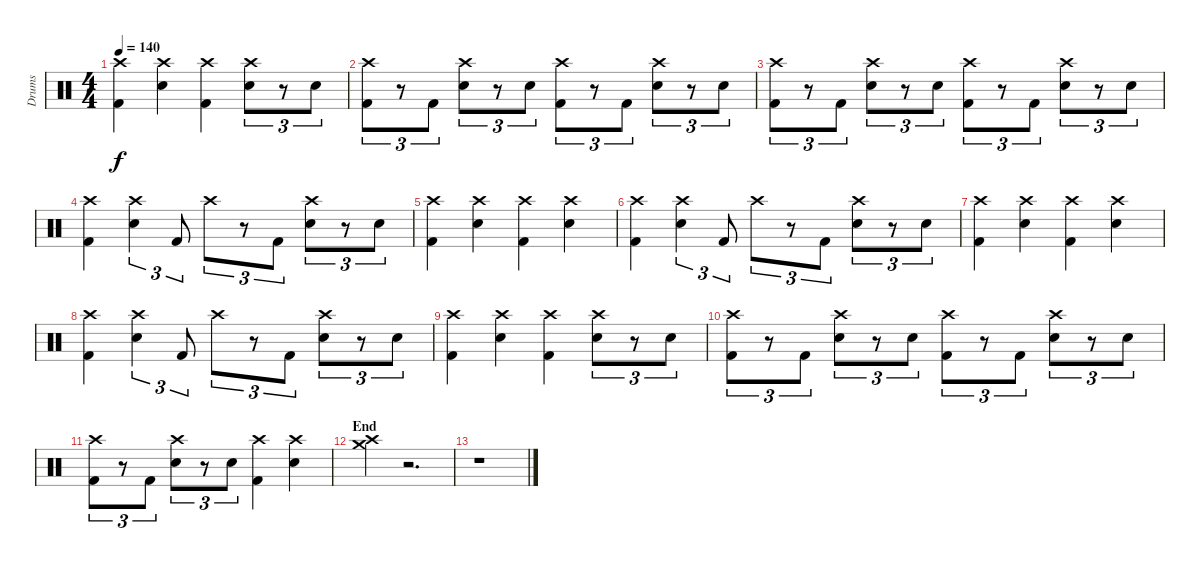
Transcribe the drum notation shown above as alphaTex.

\track ("Drums" "Drums") {instrument percussion}
\staff {score}
\articulation defaults
\ts (4 4)
\tempo 140
\clef neutral
\ks c
("Crash high (hit)" "Kick (hit) 2").4{dy f} ("Crash high (hit)" "Snare (hit) 2").4 ("Crash high (hit)" "Kick (hit) 2").4 ("Crash high (hit)" "Snare (hit) 2").8{tu (3 2)} r.8{tu (3 2)} "Snare (hit) 2".8{tu (3 2)} |
("Crash high (hit)" "Kick (hit) 2").8{tu (3 2)} r.8{tu (3 2)} "Kick (hit) 2".8{tu (3 2)} ("Crash high (hit)" "Snare (hit) 2").8{tu (3 2)} r.8{tu (3 2)} "Snare (hit) 2".8{tu (3 2)} ("Crash high (hit)" "Kick (hit) 2").8{tu (3 2)} r.8{tu (3 2)} "Kick (hit) 2".8{tu (3 2)} ("Crash high (hit)" "Snare (hit) 2").8{tu (3 2)} r.8{tu (3 2)} "Snare (hit) 2".8{tu (3 2)} |
("Crash high (hit)" "Kick (hit) 2").8{tu (3 2)} r.8{tu (3 2)} "Kick (hit) 2".8{tu (3 2)} ("Crash high (hit)" "Snare (hit) 2").8{tu (3 2)} r.8{tu (3 2)} "Snare (hit) 2".8{tu (3 2)} ("Crash high (hit)" "Kick (hit) 2").8{tu (3 2)} r.8{tu (3 2)} "Kick (hit) 2".8{tu (3 2)} ("Crash high (hit)" "Snare (hit) 2").8{tu (3 2)} r.8{tu (3 2)} "Snare (hit) 2".8{tu (3 2)} |
("Crash high (hit)" "Kick (hit) 2").4 ("Crash high (hit)" "Snare (hit) 2").4{tu (3 2)} "Kick (hit) 2".8{tu (3 2)} "Crash high (hit)".8{tu (3 2)} r.8{tu (3 2)} "Kick (hit) 2".8{tu (3 2)} ("Crash high (hit)" "Snare (hit) 2").8{tu (3 2)} r.8{tu (3 2)} "Snare (hit) 2".8{tu (3 2)} |
("Crash high (hit)" "Kick (hit) 2").4 ("Crash high (hit)" "Snare (hit) 2").4 ("Crash high (hit)" "Kick (hit) 2").4 ("Crash high (hit)" "Snare (hit) 2").4 |
("Crash high (hit)" "Kick (hit) 2").4 ("Crash high (hit)" "Snare (hit) 2").4{tu (3 2)} "Kick (hit) 2".8{tu (3 2)} "Crash high (hit)".8{tu (3 2)} r.8{tu (3 2)} "Kick (hit) 2".8{tu (3 2)} ("Crash high (hit)" "Snare (hit) 2").8{tu (3 2)} r.8{tu (3 2)} "Snare (hit) 2".8{tu (3 2)} |
("Crash high (hit)" "Kick (hit) 2").4 ("Crash high (hit)" "Snare (hit) 2").4 ("Crash high (hit)" "Kick (hit) 2").4 ("Crash high (hit)" "Snare (hit) 2").4 |
("Crash high (hit)" "Kick (hit) 2").4 ("Crash high (hit)" "Snare (hit) 2").4{tu (3 2)} "Kick (hit) 2".8{tu (3 2)} "Crash high (hit)".8{tu (3 2)} r.8{tu (3 2)} "Kick (hit) 2".8{tu (3 2)} ("Crash high (hit)" "Snare (hit) 2").8{tu (3 2)} r.8{tu (3 2)} "Snare (hit) 2".8{tu (3 2)} |
("Crash high (hit)" "Kick (hit) 2").4 ("Crash high (hit)" "Snare (hit) 2").4 ("Crash high (hit)" "Kick (hit) 2").4 ("Crash high (hit)" "Snare (hit) 2").8{tu (3 2)} r.8{tu (3 2)} "Snare (hit) 2".8{tu (3 2)} |
("Crash high (hit)" "Kick (hit) 2").8{tu (3 2)} r.8{tu (3 2)} "Kick (hit) 2".8{tu (3 2)} ("Crash high (hit)" "Snare (hit) 2").8{tu (3 2)} r.8{tu (3 2)} "Snare (hit) 2".8{tu (3 2)} ("Crash high (hit)" "Kick (hit) 2").8{tu (3 2)} r.8{tu (3 2)} "Kick (hit) 2".8{tu (3 2)} ("Crash high (hit)" "Snare (hit) 2").8{tu (3 2)} r.8{tu (3 2)} "Snare (hit) 2".8{tu (3 2)} |
("Crash high (hit)" "Kick (hit) 2").8{tu (3 2)} r.8{tu (3 2)} "Kick (hit) 2".8{tu (3 2)} ("Crash high (hit)" "Snare (hit) 2").8{tu (3 2)} r.8{tu (3 2)} "Snare (hit) 2".8{tu (3 2)} ("Crash high (hit)" "Kick (hit) 2").4 ("Crash high (hit)" "Snare (hit) 2").4 |
\section ("" "End")
("Crash medium (hit)" "Crash high (hit)").4 r.2{d} |
r.1
